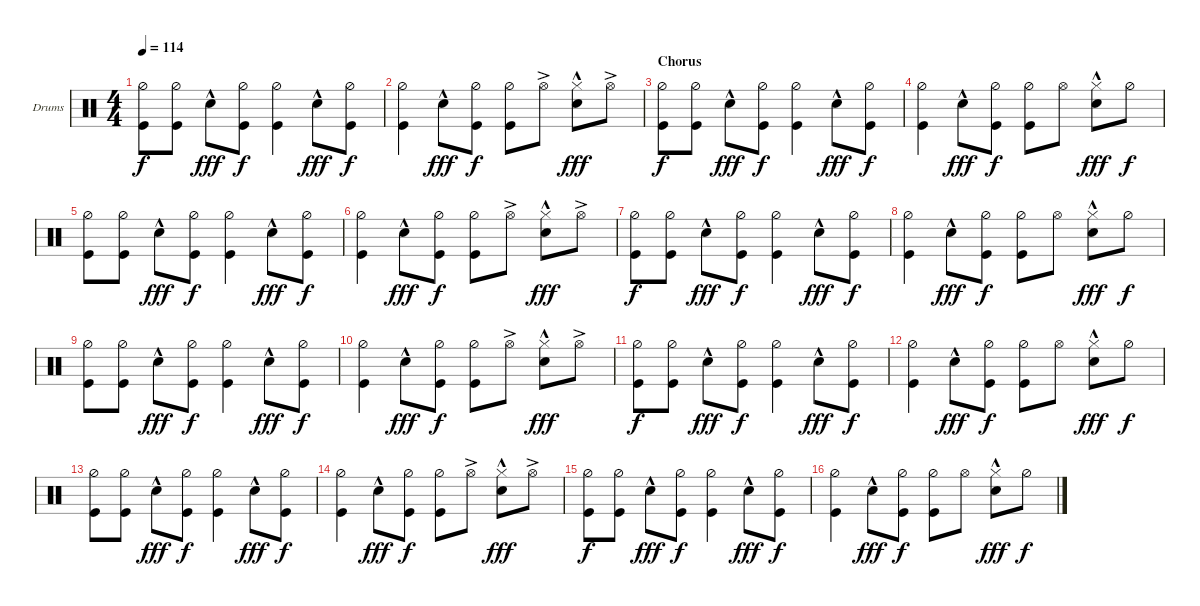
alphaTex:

\defaultSystemsLayout 4
\bracketExtendMode groupsimilarinstruments
\firstSystemTrackNameOrientation horizontal
\otherSystemsTrackNameOrientation horizontal
\track ("Drumkit" "Drums") {instrument percussion}
\staff {score}
\articulation defaults
\ts (4 4)
\tempo 114
\clef neutral
\ks c
("Hi-Hat (half)" "Kick (hit)").8{dy f} ("Hi-Hat (half)" "Kick (hit)").8 "Snare (hit) 2"{hac}.8{dy fff} ("Kick (hit)" "Hi-Hat (half)").8{dy f} ("Kick (hit)" "Hi-Hat (half)").4 "Snare (hit) 2"{hac}.8{dy fff} ("Kick (hit)" "Hi-Hat (half)").8{dy f} |
("Kick (hit)" "Hi-Hat (half)").4 "Snare (hit) 2"{hac}.8{dy fff} ("Kick (hit)" "Hi-Hat (half)").8{dy f} ("Kick (hit)" "Hi-Hat (half)").8 "Hi-Hat (open)"{ac}.8 ("Snare (hit) 2"{hac} "Hi-Hat (closed)").8{dy fff} "Hi-Hat (open)"{ac}.8 |
\section ("" "Chorus")
("Hi-Hat (half)" "Kick (hit)").8{dy f} ("Hi-Hat (half)" "Kick (hit)").8 "Snare (hit) 2"{hac}.8{dy fff} ("Kick (hit)" "Hi-Hat (half)").8{dy f} ("Kick (hit)" "Hi-Hat (half)").4 "Snare (hit) 2"{hac}.8{dy fff} ("Kick (hit)" "Hi-Hat (half)").8{dy f} |
("Kick (hit)" "Hi-Hat (half)").4 "Snare (hit) 2"{hac}.8{dy fff} ("Kick (hit)" "Hi-Hat (half)").8{dy f} ("Kick (hit)" "Hi-Hat (half)").8 "Hi-Hat (open)".8 ("Hi-Hat (closed)" "Snare (hit) 2"{hac}).8{dy fff} "Hi-Hat (half)".8{dy f} |
("Hi-Hat (half)" "Kick (hit)").8 ("Hi-Hat (half)" "Kick (hit)").8 "Snare (hit) 2"{hac}.8{dy fff} ("Kick (hit)" "Hi-Hat (half)").8{dy f} ("Kick (hit)" "Hi-Hat (half)").4 "Snare (hit) 2"{hac}.8{dy fff} ("Kick (hit)" "Hi-Hat (half)").8{dy f} |
("Kick (hit)" "Hi-Hat (half)").4 "Snare (hit) 2"{hac}.8{dy fff} ("Kick (hit)" "Hi-Hat (half)").8{dy f} ("Kick (hit)" "Hi-Hat (half)").8 "Hi-Hat (open)"{ac}.8 ("Snare (hit) 2"{hac} "Hi-Hat (closed)").8{dy fff} "Hi-Hat (open)"{ac}.8 |
("Hi-Hat (half)" "Kick (hit)").8{dy f} ("Hi-Hat (half)" "Kick (hit)").8 "Snare (hit) 2"{hac}.8{dy fff} ("Kick (hit)" "Hi-Hat (half)").8{dy f} ("Kick (hit)" "Hi-Hat (half)").4 "Snare (hit) 2"{hac}.8{dy fff} ("Kick (hit)" "Hi-Hat (half)").8{dy f} |
("Kick (hit)" "Hi-Hat (half)").4 "Snare (hit) 2"{hac}.8{dy fff} ("Kick (hit)" "Hi-Hat (half)").8{dy f} ("Kick (hit)" "Hi-Hat (half)").8 "Hi-Hat (open)".8 ("Hi-Hat (closed)" "Snare (hit) 2"{hac}).8{dy fff} "Hi-Hat (half)".8{dy f} |
("Hi-Hat (half)" "Kick (hit)").8 ("Hi-Hat (half)" "Kick (hit)").8 "Snare (hit) 2"{hac}.8{dy fff} ("Kick (hit)" "Hi-Hat (half)").8{dy f} ("Kick (hit)" "Hi-Hat (half)").4 "Snare (hit) 2"{hac}.8{dy fff} ("Kick (hit)" "Hi-Hat (half)").8{dy f} |
("Kick (hit)" "Hi-Hat (half)").4 "Snare (hit) 2"{hac}.8{dy fff} ("Kick (hit)" "Hi-Hat (half)").8{dy f} ("Kick (hit)" "Hi-Hat (half)").8 "Hi-Hat (open)"{ac}.8 ("Snare (hit) 2"{hac} "Hi-Hat (closed)").8{dy fff} "Hi-Hat (open)"{ac}.8 |
("Hi-Hat (half)" "Kick (hit)").8{dy f} ("Hi-Hat (half)" "Kick (hit)").8 "Snare (hit) 2"{hac}.8{dy fff} ("Kick (hit)" "Hi-Hat (half)").8{dy f} ("Kick (hit)" "Hi-Hat (half)").4 "Snare (hit) 2"{hac}.8{dy fff} ("Kick (hit)" "Hi-Hat (half)").8{dy f} |
("Kick (hit)" "Hi-Hat (half)").4 "Snare (hit) 2"{hac}.8{dy fff} ("Kick (hit)" "Hi-Hat (half)").8{dy f} ("Kick (hit)" "Hi-Hat (half)").8 "Hi-Hat (open)".8 ("Hi-Hat (closed)" "Snare (hit) 2"{hac}).8{dy fff} "Hi-Hat (half)".8{dy f} |
("Hi-Hat (half)" "Kick (hit)").8 ("Hi-Hat (half)" "Kick (hit)").8 "Snare (hit) 2"{hac}.8{dy fff} ("Kick (hit)" "Hi-Hat (half)").8{dy f} ("Kick (hit)" "Hi-Hat (half)").4 "Snare (hit) 2"{hac}.8{dy fff} ("Kick (hit)" "Hi-Hat (half)").8{dy f} |
("Kick (hit)" "Hi-Hat (half)").4 "Snare (hit) 2"{hac}.8{dy fff} ("Kick (hit)" "Hi-Hat (half)").8{dy f} ("Kick (hit)" "Hi-Hat (half)").8 "Hi-Hat (open)"{ac}.8 ("Snare (hit) 2"{hac} "Hi-Hat (closed)").8{dy fff} "Hi-Hat (open)"{ac}.8 |
("Hi-Hat (half)" "Kick (hit)").8{dy f} ("Hi-Hat (half)" "Kick (hit)").8 "Snare (hit) 2"{hac}.8{dy fff} ("Kick (hit)" "Hi-Hat (half)").8{dy f} ("Kick (hit)" "Hi-Hat (half)").4 "Snare (hit) 2"{hac}.8{dy fff} ("Kick (hit)" "Hi-Hat (half)").8{dy f} |
("Kick (hit)" "Hi-Hat (half)").4 "Snare (hit) 2"{hac}.8{dy fff} ("Kick (hit)" "Hi-Hat (half)").8{dy f} ("Kick (hit)" "Hi-Hat (half)").8 "Hi-Hat (open)".8 ("Hi-Hat (closed)" "Snare (hit) 2"{hac}).8{dy fff} "Hi-Hat (half)".8{dy f}
